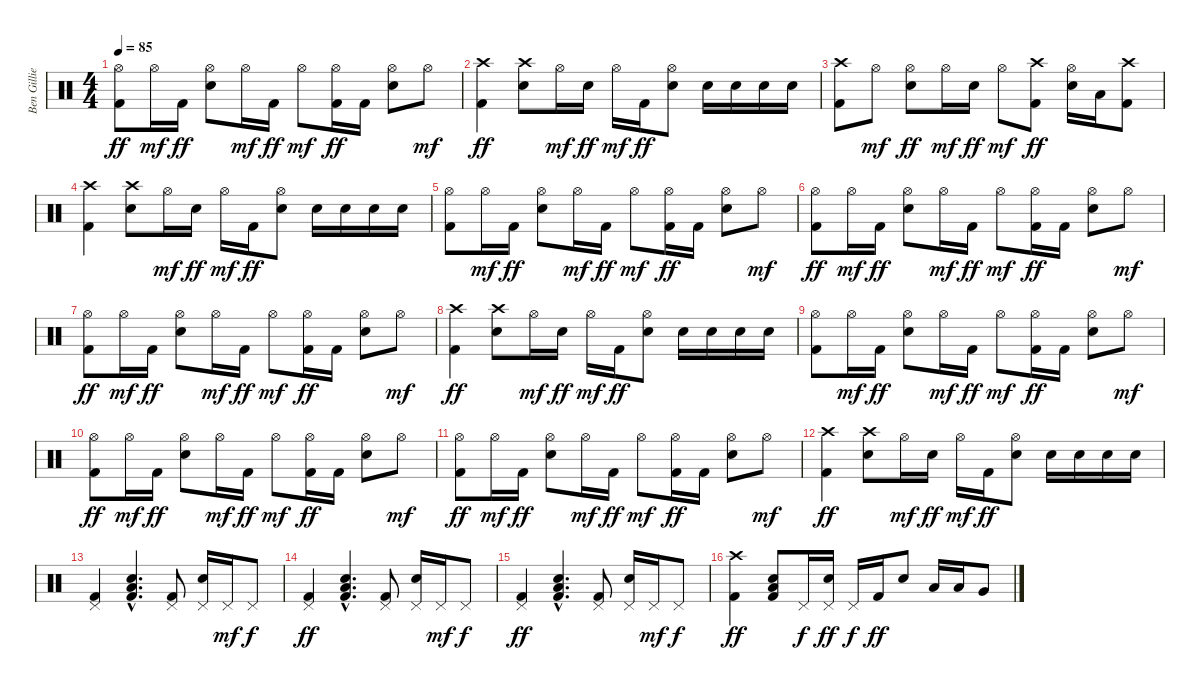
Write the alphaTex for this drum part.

\track ("Ben Gillies" "Ben Gillie") {instrument percussion}
\staff {score}
\articulation defaults
\ts (4 4)
\tempo 85
\clef neutral
\ks c
("Hi-Hat (open)" "Kick (hit) 2").8{dy ff} "Hi-Hat (open)".16{dy mf} "Kick (hit) 2".16{dy ff} ("Hi-Hat (open)" "Electric Snare (hit)").8 "Hi-Hat (open)".16{dy mf} "Kick (hit) 2".16{dy ff} "Hi-Hat (open)".8{dy mf} ("Hi-Hat (open)" "Kick (hit) 2").16{dy ff} "Kick (hit) 2".16 ("Hi-Hat (open)" "Electric Snare (hit)").8 "Hi-Hat (open)".8{dy mf} |
("Crash high (hit)" "Kick (hit) 2").4{dy ff} ("Crash high (hit)" "Electric Snare (hit)").8 "Hi-Hat (open)".16{dy mf} "Electric Snare (hit)".16{dy ff} "Hi-Hat (open)".16{dy mf} "Kick (hit) 2".16{dy ff} ("Hi-Hat (open)" "Electric Snare (hit)").8 "Electric Snare (hit)".16 "Electric Snare (hit)".16 "Electric Snare (hit)".16 "Electric Snare (hit)".16 |
("Crash high (hit)" "Kick (hit) 2").8 "Hi-Hat (open)".8{dy mf} ("Hi-Hat (open)" "Electric Snare (hit)").8{dy ff} "Hi-Hat (open)".16{dy mf} "Electric Snare (hit)".16{dy ff} "Hi-Hat (open)".8{dy mf} ("Crash high (hit)" "Kick (hit) 2").8{dy ff} ("Hi-Hat (open)" "Electric Snare (hit)").16 "Low Floor Tom (hit)".16 ("Crash high (hit)" "Kick (hit) 2").8 |
("Crash high (hit)" "Kick (hit) 2").4 ("Crash high (hit)" "Electric Snare (hit)").8 "Hi-Hat (open)".16{dy mf} "Electric Snare (hit)".16{dy ff} "Hi-Hat (open)".16{dy mf} "Kick (hit) 2".16{dy ff} ("Hi-Hat (open)" "Electric Snare (hit)").8 "Electric Snare (hit)".16 "Electric Snare (hit)".16 "Electric Snare (hit)".16 "Electric Snare (hit)".16 |
("Hi-Hat (open)" "Kick (hit) 2").8 "Hi-Hat (open)".16{dy mf} "Kick (hit) 2".16{dy ff} ("Hi-Hat (open)" "Electric Snare (hit)").8 "Hi-Hat (open)".16{dy mf} "Kick (hit) 2".16{dy ff} "Hi-Hat (open)".8{dy mf} ("Hi-Hat (open)" "Kick (hit) 2").16{dy ff} "Kick (hit) 2".16 ("Hi-Hat (open)" "Electric Snare (hit)").8 "Hi-Hat (open)".8{dy mf} |
("Hi-Hat (open)" "Kick (hit) 2").8{dy ff} "Hi-Hat (open)".16{dy mf} "Kick (hit) 2".16{dy ff} ("Hi-Hat (open)" "Electric Snare (hit)").8 "Hi-Hat (open)".16{dy mf} "Kick (hit) 2".16{dy ff} "Hi-Hat (open)".8{dy mf} ("Hi-Hat (open)" "Kick (hit) 2").16{dy ff} "Kick (hit) 2".16 ("Hi-Hat (open)" "Electric Snare (hit)").8 "Hi-Hat (open)".8{dy mf} |
("Hi-Hat (open)" "Kick (hit) 2").8{dy ff} "Hi-Hat (open)".16{dy mf} "Kick (hit) 2".16{dy ff} ("Hi-Hat (open)" "Electric Snare (hit)").8 "Hi-Hat (open)".16{dy mf} "Kick (hit) 2".16{dy ff} "Hi-Hat (open)".8{dy mf} ("Hi-Hat (open)" "Kick (hit) 2").16{dy ff} "Kick (hit) 2".16 ("Hi-Hat (open)" "Electric Snare (hit)").8 "Hi-Hat (open)".8{dy mf} |
("Crash high (hit)" "Kick (hit) 2").4{dy ff} ("Crash high (hit)" "Electric Snare (hit)").8 "Hi-Hat (open)".16{dy mf} "Electric Snare (hit)".16{dy ff} "Hi-Hat (open)".16{dy mf} "Kick (hit) 2".16{dy ff} ("Hi-Hat (open)" "Electric Snare (hit)").8 "Electric Snare (hit)".16 "Electric Snare (hit)".16 "Electric Snare (hit)".16 "Electric Snare (hit)".16 |
("Hi-Hat (open)" "Kick (hit) 2").8 "Hi-Hat (open)".16{dy mf} "Kick (hit) 2".16{dy ff} ("Hi-Hat (open)" "Electric Snare (hit)").8 "Hi-Hat (open)".16{dy mf} "Kick (hit) 2".16{dy ff} "Hi-Hat (open)".8{dy mf} ("Hi-Hat (open)" "Kick (hit) 2").16{dy ff} "Kick (hit) 2".16 ("Hi-Hat (open)" "Electric Snare (hit)").8 "Hi-Hat (open)".8{dy mf} |
("Hi-Hat (open)" "Kick (hit) 2").8{dy ff} "Hi-Hat (open)".16{dy mf} "Kick (hit) 2".16{dy ff} ("Hi-Hat (open)" "Electric Snare (hit)").8 "Hi-Hat (open)".16{dy mf} "Kick (hit) 2".16{dy ff} "Hi-Hat (open)".8{dy mf} ("Hi-Hat (open)" "Kick (hit) 2").16{dy ff} "Kick (hit) 2".16 ("Hi-Hat (open)" "Electric Snare (hit)").8 "Hi-Hat (open)".8{dy mf} |
("Hi-Hat (open)" "Kick (hit) 2").8{dy ff} "Hi-Hat (open)".16{dy mf} "Kick (hit) 2".16{dy ff} ("Hi-Hat (open)" "Electric Snare (hit)").8 "Hi-Hat (open)".16{dy mf} "Kick (hit) 2".16{dy ff} "Hi-Hat (open)".8{dy mf} ("Hi-Hat (open)" "Kick (hit) 2").16{dy ff} "Kick (hit) 2".16 ("Hi-Hat (open)" "Electric Snare (hit)").8 "Hi-Hat (open)".8{dy mf} |
("Crash high (hit)" "Kick (hit) 2").4{dy ff} ("Crash high (hit)" "Electric Snare (hit)").8 "Hi-Hat (open)".16{dy mf} "Electric Snare (hit)".16{dy ff} "Hi-Hat (open)".16{dy mf} "Kick (hit) 2".16{dy ff} ("Hi-Hat (open)" "Electric Snare (hit)").8 "Electric Snare (hit)".16 "Electric Snare (hit)".16 "Electric Snare (hit)".16 "Electric Snare (hit)".16 |
("Pedal Hi-Hat (hit)" "Kick (hit) 2").4 ("Low Floor Tom (hit)"{hac} "Electric Snare (hit)"{hac} "Kick (hit) 2"{hac}).4{d} ("Pedal Hi-Hat (hit)" "Kick (hit) 2").8 ("Pedal Hi-Hat (hit)" "Electric Snare (hit)").16 "Pedal Hi-Hat (hit)".16{dy mf} "Pedal Hi-Hat (hit)".8{dy f} |
("Pedal Hi-Hat (hit)" "Kick (hit) 2").4{dy ff} ("Low Floor Tom (hit)"{hac} "Electric Snare (hit)"{hac} "Kick (hit) 2"{hac}).4{d} ("Pedal Hi-Hat (hit)" "Kick (hit) 2").8 ("Pedal Hi-Hat (hit)" "Electric Snare (hit)").16 "Pedal Hi-Hat (hit)".16{dy mf} "Pedal Hi-Hat (hit)".8{dy f} |
("Pedal Hi-Hat (hit)" "Kick (hit) 2").4{dy ff} ("Low Floor Tom (hit)"{hac} "Electric Snare (hit)"{hac} "Kick (hit) 2"{hac}).4{d} ("Pedal Hi-Hat (hit)" "Kick (hit) 2").8 ("Pedal Hi-Hat (hit)" "Electric Snare (hit)").16 "Pedal Hi-Hat (hit)".16{dy mf} "Pedal Hi-Hat (hit)".8{dy f} |
("Crash high (hit)" "Kick (hit) 2").4{dy ff} ("Low Floor Tom (hit)" "Electric Snare (hit)" "Kick (hit) 2").8 "Pedal Hi-Hat (hit)".16{dy f} ("Pedal Hi-Hat (hit)" "Electric Snare (hit)").16{dy ff} "Pedal Hi-Hat (hit)".16{dy f} "Kick (hit) 2".16{dy ff} "Electric Snare (hit)".8 "Low Floor Tom (hit)".16 "Low Floor Tom (hit)".16 "Very Low Tom (hit)".8
